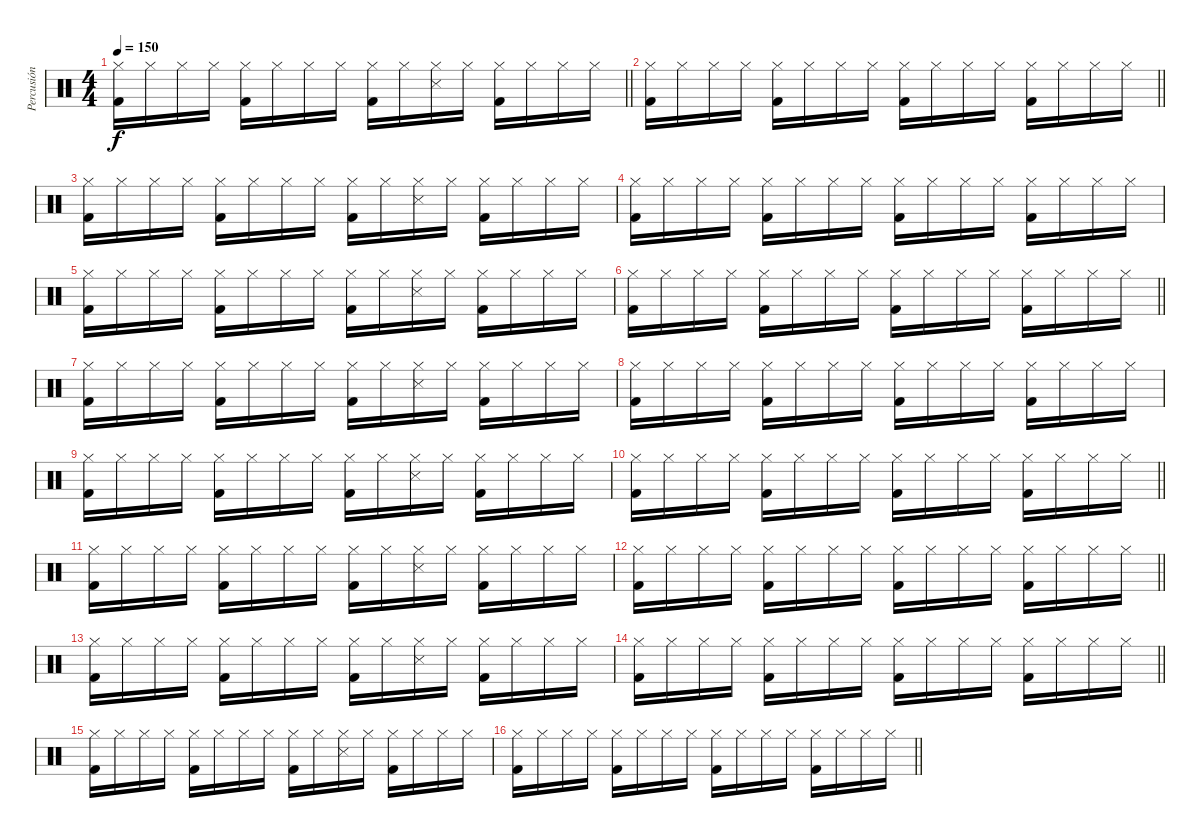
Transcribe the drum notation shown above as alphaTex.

\track ("Percusión" "Percusión") {instrument percussion}
\staff {score}
\articulation defaults
\ts (4 4)
\tempo 150
\clef neutral
\barLineRight lightlight
\ks c
("Kick (hit) 2" "Hi-Hat (closed)").16{dy f} "Hi-Hat (closed)".16 "Hi-Hat (closed)".16 "Hi-Hat (closed)".16 ("Kick (hit) 2" "Hi-Hat (closed)").16 "Hi-Hat (closed)".16 "Hi-Hat (closed)".16 "Hi-Hat (closed)".16 ("Kick (hit) 2" "Hi-Hat (closed)").16 "Hi-Hat (closed)".16 ("Snare (side stick) 3" "Hi-Hat (closed)").16 "Hi-Hat (closed)".16 ("Kick (hit) 2" "Hi-Hat (closed)").16 "Hi-Hat (closed)".16 "Hi-Hat (closed)".16 "Hi-Hat (closed)".16 |
\barLineRight lightlight
("Kick (hit) 2" "Hi-Hat (closed)").16 "Hi-Hat (closed)".16 "Hi-Hat (closed)".16 "Hi-Hat (closed)".16 ("Kick (hit) 2" "Hi-Hat (closed)").16 "Hi-Hat (closed)".16 "Hi-Hat (closed)".16 "Hi-Hat (closed)".16 ("Kick (hit) 2" "Hi-Hat (closed)").16 "Hi-Hat (closed)".16 "Hi-Hat (closed)".16 "Hi-Hat (closed)".16 ("Kick (hit) 2" "Hi-Hat (closed)").16 "Hi-Hat (closed)".16 "Hi-Hat (closed)".16 "Hi-Hat (closed)".16 |
("Kick (hit) 2" "Hi-Hat (closed)").16 "Hi-Hat (closed)".16 "Hi-Hat (closed)".16 "Hi-Hat (closed)".16 ("Kick (hit) 2" "Hi-Hat (closed)").16 "Hi-Hat (closed)".16 "Hi-Hat (closed)".16 "Hi-Hat (closed)".16 ("Kick (hit) 2" "Hi-Hat (closed)").16 "Hi-Hat (closed)".16 ("Snare (side stick) 3" "Hi-Hat (closed)").16 "Hi-Hat (closed)".16 ("Kick (hit) 2" "Hi-Hat (closed)").16 "Hi-Hat (closed)".16 "Hi-Hat (closed)".16 "Hi-Hat (closed)".16 |
("Kick (hit) 2" "Hi-Hat (closed)").16 "Hi-Hat (closed)".16 "Hi-Hat (closed)".16 "Hi-Hat (closed)".16 ("Kick (hit) 2" "Hi-Hat (closed)").16 "Hi-Hat (closed)".16 "Hi-Hat (closed)".16 "Hi-Hat (closed)".16 ("Kick (hit) 2" "Hi-Hat (closed)").16 "Hi-Hat (closed)".16 "Hi-Hat (closed)".16 "Hi-Hat (closed)".16 ("Kick (hit) 2" "Hi-Hat (closed)").16 "Hi-Hat (closed)".16 "Hi-Hat (closed)".16 "Hi-Hat (closed)".16 |
("Kick (hit) 2" "Hi-Hat (closed)").16 "Hi-Hat (closed)".16 "Hi-Hat (closed)".16 "Hi-Hat (closed)".16 ("Kick (hit) 2" "Hi-Hat (closed)").16 "Hi-Hat (closed)".16 "Hi-Hat (closed)".16 "Hi-Hat (closed)".16 ("Kick (hit) 2" "Hi-Hat (closed)").16 "Hi-Hat (closed)".16 ("Snare (side stick) 3" "Hi-Hat (closed)").16 "Hi-Hat (closed)".16 ("Kick (hit) 2" "Hi-Hat (closed)").16 "Hi-Hat (closed)".16 "Hi-Hat (closed)".16 "Hi-Hat (closed)".16 |
\barLineRight lightlight
("Kick (hit) 2" "Hi-Hat (closed)").16 "Hi-Hat (closed)".16 "Hi-Hat (closed)".16 "Hi-Hat (closed)".16 ("Kick (hit) 2" "Hi-Hat (closed)").16 "Hi-Hat (closed)".16 "Hi-Hat (closed)".16 "Hi-Hat (closed)".16 ("Kick (hit) 2" "Hi-Hat (closed)").16 "Hi-Hat (closed)".16 "Hi-Hat (closed)".16 "Hi-Hat (closed)".16 ("Kick (hit) 2" "Hi-Hat (closed)").16 "Hi-Hat (closed)".16 "Hi-Hat (closed)".16 "Hi-Hat (closed)".16 |
("Kick (hit) 2" "Hi-Hat (closed)").16 "Hi-Hat (closed)".16 "Hi-Hat (closed)".16 "Hi-Hat (closed)".16 ("Kick (hit) 2" "Hi-Hat (closed)").16 "Hi-Hat (closed)".16 "Hi-Hat (closed)".16 "Hi-Hat (closed)".16 ("Kick (hit) 2" "Hi-Hat (closed)").16 "Hi-Hat (closed)".16 ("Snare (side stick) 3" "Hi-Hat (closed)").16 "Hi-Hat (closed)".16 ("Kick (hit) 2" "Hi-Hat (closed)").16 "Hi-Hat (closed)".16 "Hi-Hat (closed)".16 "Hi-Hat (closed)".16 |
("Kick (hit) 2" "Hi-Hat (closed)").16 "Hi-Hat (closed)".16 "Hi-Hat (closed)".16 "Hi-Hat (closed)".16 ("Kick (hit) 2" "Hi-Hat (closed)").16 "Hi-Hat (closed)".16 "Hi-Hat (closed)".16 "Hi-Hat (closed)".16 ("Kick (hit) 2" "Hi-Hat (closed)").16 "Hi-Hat (closed)".16 "Hi-Hat (closed)".16 "Hi-Hat (closed)".16 ("Kick (hit) 2" "Hi-Hat (closed)").16 "Hi-Hat (closed)".16 "Hi-Hat (closed)".16 "Hi-Hat (closed)".16 |
("Kick (hit) 2" "Hi-Hat (closed)").16 "Hi-Hat (closed)".16 "Hi-Hat (closed)".16 "Hi-Hat (closed)".16 ("Kick (hit) 2" "Hi-Hat (closed)").16 "Hi-Hat (closed)".16 "Hi-Hat (closed)".16 "Hi-Hat (closed)".16 ("Kick (hit) 2" "Hi-Hat (closed)").16 "Hi-Hat (closed)".16 ("Snare (side stick) 3" "Hi-Hat (closed)").16 "Hi-Hat (closed)".16 ("Kick (hit) 2" "Hi-Hat (closed)").16 "Hi-Hat (closed)".16 "Hi-Hat (closed)".16 "Hi-Hat (closed)".16 |
\barLineRight lightlight
("Kick (hit) 2" "Hi-Hat (closed)").16 "Hi-Hat (closed)".16 "Hi-Hat (closed)".16 "Hi-Hat (closed)".16 ("Kick (hit) 2" "Hi-Hat (closed)").16 "Hi-Hat (closed)".16 "Hi-Hat (closed)".16 "Hi-Hat (closed)".16 ("Kick (hit) 2" "Hi-Hat (closed)").16 "Hi-Hat (closed)".16 "Hi-Hat (closed)".16 "Hi-Hat (closed)".16 ("Kick (hit) 2" "Hi-Hat (closed)").16 "Hi-Hat (closed)".16 "Hi-Hat (closed)".16 "Hi-Hat (closed)".16 |
("Kick (hit) 2" "Hi-Hat (closed)").16 "Hi-Hat (closed)".16 "Hi-Hat (closed)".16 "Hi-Hat (closed)".16 ("Kick (hit) 2" "Hi-Hat (closed)").16 "Hi-Hat (closed)".16 "Hi-Hat (closed)".16 "Hi-Hat (closed)".16 ("Kick (hit) 2" "Hi-Hat (closed)").16 "Hi-Hat (closed)".16 ("Snare (side stick) 3" "Hi-Hat (closed)").16 "Hi-Hat (closed)".16 ("Kick (hit) 2" "Hi-Hat (closed)").16 "Hi-Hat (closed)".16 "Hi-Hat (closed)".16 "Hi-Hat (closed)".16 |
\barLineRight lightlight
("Kick (hit) 2" "Hi-Hat (closed)").16 "Hi-Hat (closed)".16 "Hi-Hat (closed)".16 "Hi-Hat (closed)".16 ("Kick (hit) 2" "Hi-Hat (closed)").16 "Hi-Hat (closed)".16 "Hi-Hat (closed)".16 "Hi-Hat (closed)".16 ("Kick (hit) 2" "Hi-Hat (closed)").16 "Hi-Hat (closed)".16 "Hi-Hat (closed)".16 "Hi-Hat (closed)".16 ("Kick (hit) 2" "Hi-Hat (closed)").16 "Hi-Hat (closed)".16 "Hi-Hat (closed)".16 "Hi-Hat (closed)".16 |
("Kick (hit) 2" "Hi-Hat (closed)").16 "Hi-Hat (closed)".16 "Hi-Hat (closed)".16 "Hi-Hat (closed)".16 ("Kick (hit) 2" "Hi-Hat (closed)").16 "Hi-Hat (closed)".16 "Hi-Hat (closed)".16 "Hi-Hat (closed)".16 ("Kick (hit) 2" "Hi-Hat (closed)").16 "Hi-Hat (closed)".16 ("Snare (side stick) 3" "Hi-Hat (closed)").16 "Hi-Hat (closed)".16 ("Kick (hit) 2" "Hi-Hat (closed)").16 "Hi-Hat (closed)".16 "Hi-Hat (closed)".16 "Hi-Hat (closed)".16 |
\barLineRight lightlight
("Kick (hit) 2" "Hi-Hat (closed)").16 "Hi-Hat (closed)".16 "Hi-Hat (closed)".16 "Hi-Hat (closed)".16 ("Kick (hit) 2" "Hi-Hat (closed)").16 "Hi-Hat (closed)".16 "Hi-Hat (closed)".16 "Hi-Hat (closed)".16 ("Kick (hit) 2" "Hi-Hat (closed)").16 "Hi-Hat (closed)".16 "Hi-Hat (closed)".16 "Hi-Hat (closed)".16 ("Kick (hit) 2" "Hi-Hat (closed)").16 "Hi-Hat (closed)".16 "Hi-Hat (closed)".16 "Hi-Hat (closed)".16 |
("Kick (hit) 2" "Hi-Hat (closed)").16 "Hi-Hat (closed)".16 "Hi-Hat (closed)".16 "Hi-Hat (closed)".16 ("Kick (hit) 2" "Hi-Hat (closed)").16 "Hi-Hat (closed)".16 "Hi-Hat (closed)".16 "Hi-Hat (closed)".16 ("Kick (hit) 2" "Hi-Hat (closed)").16 "Hi-Hat (closed)".16 ("Snare (side stick) 3" "Hi-Hat (closed)").16 "Hi-Hat (closed)".16 ("Kick (hit) 2" "Hi-Hat (closed)").16 "Hi-Hat (closed)".16 "Hi-Hat (closed)".16 "Hi-Hat (closed)".16 |
\barLineRight lightlight
("Kick (hit) 2" "Hi-Hat (closed)").16 "Hi-Hat (closed)".16 "Hi-Hat (closed)".16 "Hi-Hat (closed)".16 ("Kick (hit) 2" "Hi-Hat (closed)").16 "Hi-Hat (closed)".16 "Hi-Hat (closed)".16 "Hi-Hat (closed)".16 ("Kick (hit) 2" "Hi-Hat (closed)").16 "Hi-Hat (closed)".16 "Hi-Hat (closed)".16 "Hi-Hat (closed)".16 ("Kick (hit) 2" "Hi-Hat (closed)").16 "Hi-Hat (closed)".16 "Hi-Hat (closed)".16 "Hi-Hat (closed)".16
